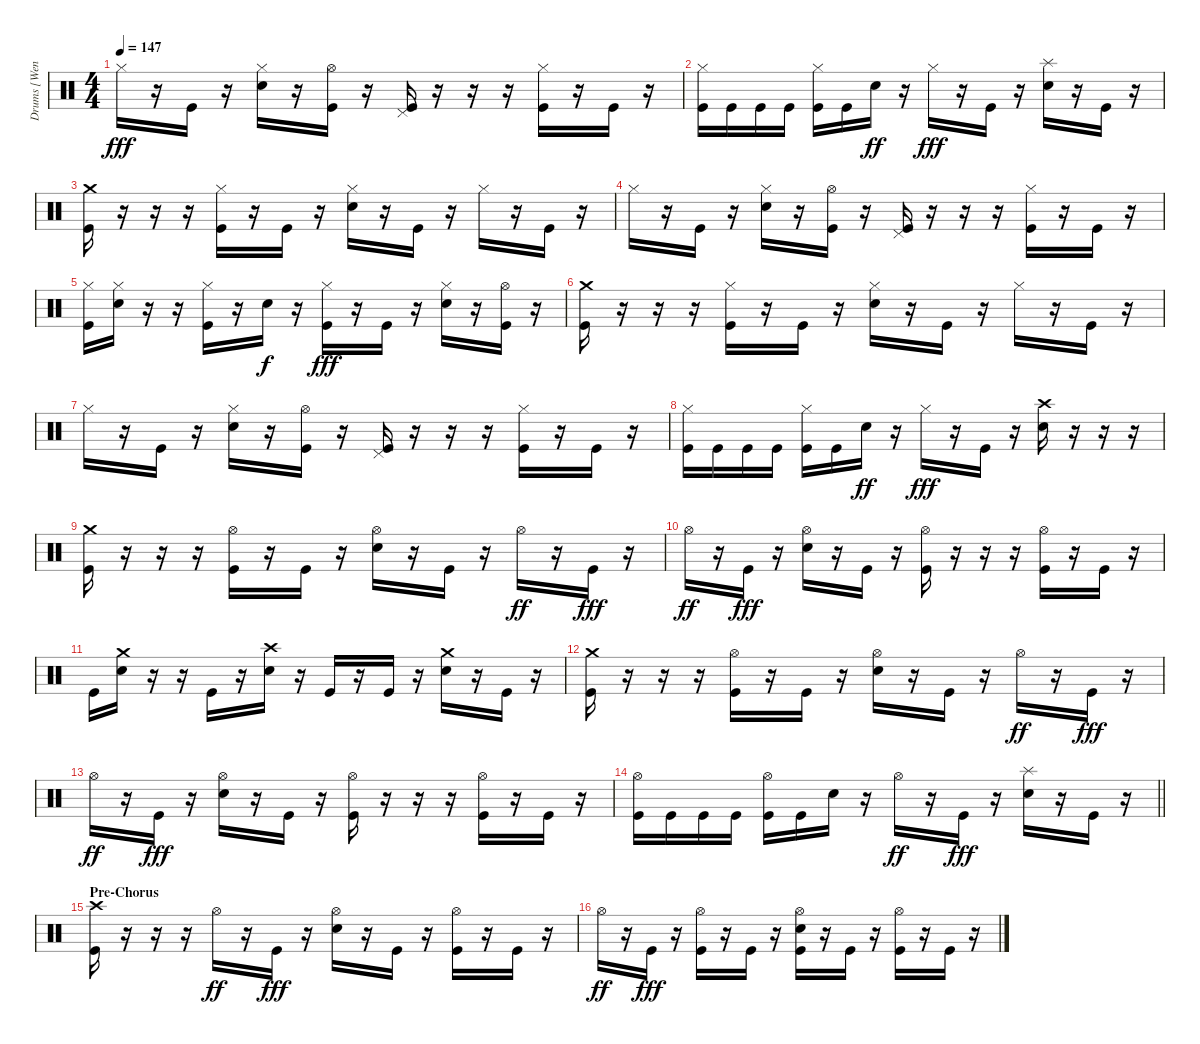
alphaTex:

\track ("Drums [Wengren]" "Drums [Wen") {instrument percussion}
\staff {score}
\articulation defaults
\ts (4 4)
\tempo 147
\clef neutral
\ks c "Hi-Hat (closed)".16{dy fff}
r.16 "Kick (hit)".16 r.16 ("Hi-Hat (closed)" "Snare (hit) 2").16 r.16 ("Hi-Hat (open)" "Kick (hit)").16 r.16 ("Pedal Hi-Hat (hit)" "Kick (hit)").16 r.16 r.16 r.16 ("Hi-Hat (closed)" "Kick (hit)").16 r.16 "Kick (hit)".16 r.16 |
("Hi-Hat (closed)" "Kick (hit)").16 "Kick (hit)".16 "Kick (hit)".16 "Kick (hit)".16 ("Hi-Hat (closed)" "Kick (hit)").16 "Kick (hit)".16 "Snare (hit) 2".16{dy ff} r.16 "Hi-Hat (closed)".16{dy fff} r.16 "Kick (hit)".16 r.16 ("Splash (hit)" "Snare (hit) 2").16 r.16 "Kick (hit)".16 r.16 |
("Crash medium (hit)" "Kick (hit)").16 r.16 r.16 r.16 ("Hi-Hat (closed)" "Kick (hit)").16 r.16 "Kick (hit)".16 r.16 ("Hi-Hat (closed)" "Snare (hit) 2").16 r.16 "Kick (hit)".16 r.16 "Hi-Hat (closed)".16 r.16 "Kick (hit)".16 r.16 |
"Hi-Hat (closed)".16 r.16 "Kick (hit)".16 r.16 ("Hi-Hat (closed)" "Snare (hit) 2").16 r.16 ("Hi-Hat (open)" "Kick (hit)").16 r.16 ("Pedal Hi-Hat (hit)" "Kick (hit)").16 r.16 r.16 r.16 ("Hi-Hat (closed)" "Kick (hit)").16 r.16 "Kick (hit)".16 r.16 |
("Hi-Hat (closed)" "Kick (hit)").16 ("Hi-Hat (closed)" "Snare (hit) 2").16 r.16 r.16 ("Hi-Hat (closed)" "Kick (hit)").16 r.16 "Snare (hit) 2".16{dy f} r.16 ("Hi-Hat (closed)" "Kick (hit)").16{dy fff} r.16 "Kick (hit)".16 r.16 ("Hi-Hat (closed)" "Snare (hit) 2").16 r.16 ("Hi-Hat (open)" "Kick (hit)").16 r.16 |
("Crash medium (hit)" "Kick (hit)").16 r.16 r.16 r.16 ("Hi-Hat (closed)" "Kick (hit)").16 r.16 "Kick (hit)".16 r.16 ("Hi-Hat (closed)" "Snare (hit) 2").16 r.16 "Kick (hit)".16 r.16 "Hi-Hat (closed)".16 r.16 "Kick (hit)".16 r.16 |
"Hi-Hat (closed)".16 r.16 "Kick (hit)".16 r.16 ("Hi-Hat (closed)" "Snare (hit) 2").16 r.16 ("Hi-Hat (open)" "Kick (hit)").16 r.16 ("Pedal Hi-Hat (hit)" "Kick (hit)").16 r.16 r.16 r.16 ("Hi-Hat (closed)" "Kick (hit)").16 r.16 "Kick (hit)".16 r.16 |
("Hi-Hat (closed)" "Kick (hit)").16 "Kick (hit)".16 "Kick (hit)".16 "Kick (hit)".16 ("Hi-Hat (closed)" "Kick (hit)").16 "Kick (hit)".16 "Snare (hit) 2".16{dy ff} r.16 "Hi-Hat (closed)".16{dy fff} r.16 "Kick (hit)".16 r.16 ("Crash high (hit)" "Snare (hit) 2").16 r.16 r.16 r.16 |
("Crash medium (hit)" "Kick (hit)").16 r.16 r.16 r.16 ("Hi-Hat (open)" "Kick (hit)").16 r.16 "Kick (hit)".16 r.16 ("Hi-Hat (open)" "Snare (hit) 2").16 r.16 "Kick (hit)".16 r.16 "Hi-Hat (open)".16{dy ff} r.16 "Kick (hit)".16{dy fff} r.16 |
"Hi-Hat (open)".16{dy ff} r.16 "Kick (hit)".16{dy fff} r.16 ("Hi-Hat (open)" "Snare (hit) 2").16 r.16 "Kick (hit)".16 r.16 ("Hi-Hat (open)" "Kick (hit)").16 r.16 r.16 r.16 ("Hi-Hat (open)" "Kick (hit)").16 r.16 "Kick (hit)".16 r.16 |
"Kick (hit)".16 ("Crash medium (hit)" "Snare (hit) 2").16 r.16 r.16 "Kick (hit)".16 r.16 ("Crash high (hit)" "Snare (hit) 2").16 r.16 "Kick (hit)".16 r.16 "Kick (hit)".16 r.16 ("Crash medium (hit)" "Snare (hit) 2").16 r.16 "Kick (hit)".16 r.16 |
("Crash medium (hit)" "Kick (hit)").16 r.16 r.16 r.16 ("Hi-Hat (open)" "Kick (hit)").16 r.16 "Kick (hit)".16 r.16 ("Hi-Hat (open)" "Snare (hit) 2").16 r.16 "Kick (hit)".16 r.16 "Hi-Hat (open)".16{dy ff} r.16 "Kick (hit)".16{dy fff} r.16 |
"Hi-Hat (open)".16{dy ff} r.16 "Kick (hit)".16{dy fff} r.16 ("Hi-Hat (open)" "Snare (hit) 2").16 r.16 "Kick (hit)".16 r.16 ("Hi-Hat (open)" "Kick (hit)").16 r.16 r.16 r.16 ("Hi-Hat (open)" "Kick (hit)").16 r.16 "Kick (hit)".16 r.16 |
\barLineRight lightlight
("Hi-Hat (open)" "Kick (hit)").16 "Kick (hit)".16 "Kick (hit)".16 "Kick (hit)".16 ("Hi-Hat (open)" "Kick (hit)").16 "Kick (hit)".16 "Snare (hit) 2".16 r.16 "Hi-Hat (open)".16{dy ff} r.16 "Kick (hit)".16{dy fff} r.16 ("Splash (hit)" "Snare (hit) 2").16 r.16 "Kick (hit)".16 r.16 |
\section ("" "Pre-Chorus")
("Crash high (hit)" "Kick (hit)").16 r.16 r.16 r.16 "Hi-Hat (open)".16{dy ff} r.16 "Kick (hit)".16{dy fff} r.16 ("Hi-Hat (open)" "Snare (hit) 2").16 r.16 "Kick (hit)".16 r.16 ("Hi-Hat (open)" "Kick (hit)").16 r.16 "Kick (hit)".16 r.16 |
"Hi-Hat (open)".16{dy ff} r.16 "Kick (hit)".16{dy fff} r.16 ("Hi-Hat (open)" "Kick (hit)").16 r.16 "Kick (hit)".16 r.16 ("Hi-Hat (open)" "Snare (hit) 2" "Kick (hit)").16 r.16 "Kick (hit)".16 r.16 ("Hi-Hat (open)" "Kick (hit)").16 r.16 "Kick (hit)".16 r.16
